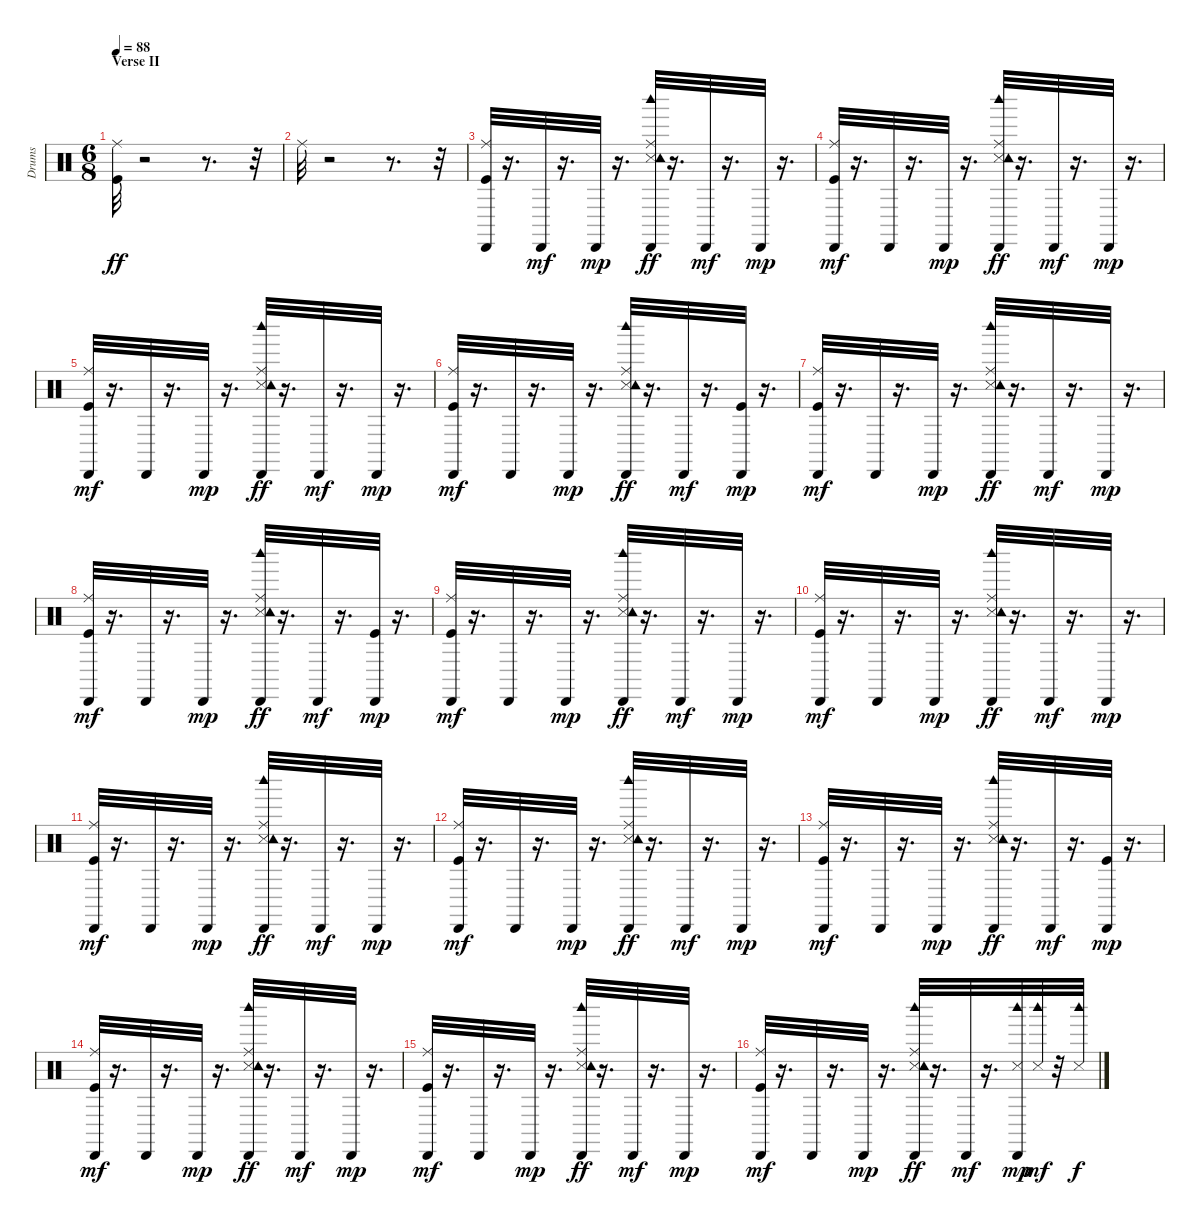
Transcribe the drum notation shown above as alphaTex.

\track ("Drums               " "Drums     ") {instrument percussion}
\staff {score}
\articulation defaults
\ts (6 8)
\section ("" "Verse II")
\tempo 88
\clef neutral
\ks c
("Kick (hit)" "Ride (middle)").32{dy ff} r.2 r.8{d} r.32 |
"Ride (middle)".32 r.2 r.8{d} r.32 |
("Kick (hit)" "Ride (middle)" "Cabasa (hit)").32 r.16{d} "Cabasa (hit)".32{dy mf} r.16{d} "Cabasa (hit)".32{dy mp} r.16{d} ("Snare (side stick) 3" "Ride (middle)" "Tambourine (hit)" "Cabasa (hit)" "Woodblock high (hit)").32{dy ff} r.16{d} "Cabasa (hit)".32{dy mf} r.16{d} "Cabasa (hit)".32{dy mp} r.16{d} |
("Kick (hit)" "Ride (middle)" "Cabasa (hit)").32{dy mf} r.16{d} "Cabasa (hit)".32 r.16{d} "Cabasa (hit)".32{dy mp} r.16{d} ("Snare (side stick) 3" "Ride (middle)" "Tambourine (hit)" "Cabasa (hit)" "Woodblock high (hit)").32{dy ff} r.16{d} "Cabasa (hit)".32{dy mf} r.16{d} "Cabasa (hit)".32{dy mp} r.16{d} |
("Kick (hit)" "Ride (middle)" "Cabasa (hit)").32{dy mf} r.16{d} "Cabasa (hit)".32 r.16{d} "Cabasa (hit)".32{dy mp} r.16{d} ("Snare (side stick) 3" "Ride (middle)" "Tambourine (hit)" "Cabasa (hit)" "Woodblock high (hit)").32{dy ff} r.16{d} "Cabasa (hit)".32{dy mf} r.16{d} "Cabasa (hit)".32{dy mp} r.16{d} |
("Kick (hit)" "Ride (middle)" "Cabasa (hit)").32{dy mf} r.16{d} "Cabasa (hit)".32 r.16{d} "Cabasa (hit)".32{dy mp} r.16{d} ("Snare (side stick) 3" "Ride (middle)" "Tambourine (hit)" "Cabasa (hit)" "Woodblock high (hit)").32{dy ff} r.16{d} "Cabasa (hit)".32{dy mf} r.16{d} ("Kick (hit)" "Cabasa (hit)").32{dy mp} r.16{d} |
("Kick (hit)" "Ride (middle)" "Cabasa (hit)").32{dy mf} r.16{d} "Cabasa (hit)".32 r.16{d} "Cabasa (hit)".32{dy mp} r.16{d} ("Snare (side stick) 3" "Ride (middle)" "Tambourine (hit)" "Cabasa (hit)" "Woodblock high (hit)").32{dy ff} r.16{d} "Cabasa (hit)".32{dy mf} r.16{d} "Cabasa (hit)".32{dy mp} r.16{d} |
("Kick (hit)" "Ride (middle)" "Cabasa (hit)").32{dy mf} r.16{d} "Cabasa (hit)".32 r.16{d} "Cabasa (hit)".32{dy mp} r.16{d} ("Snare (side stick) 3" "Ride (middle)" "Tambourine (hit)" "Cabasa (hit)" "Woodblock high (hit)").32{dy ff} r.16{d} "Cabasa (hit)".32{dy mf} r.16{d} ("Kick (hit)" "Cabasa (hit)").32{dy mp} r.16{d} |
("Kick (hit)" "Ride (middle)" "Cabasa (hit)").32{dy mf} r.16{d} "Cabasa (hit)".32 r.16{d} "Cabasa (hit)".32{dy mp} r.16{d} ("Snare (side stick) 3" "Ride (middle)" "Tambourine (hit)" "Cabasa (hit)" "Woodblock high (hit)").32{dy ff} r.16{d} "Cabasa (hit)".32{dy mf} r.16{d} "Cabasa (hit)".32{dy mp} r.16{d} |
("Kick (hit)" "Ride (middle)" "Cabasa (hit)").32{dy mf} r.16{d} "Cabasa (hit)".32 r.16{d} "Cabasa (hit)".32{dy mp} r.16{d} ("Snare (side stick) 3" "Ride (middle)" "Tambourine (hit)" "Cabasa (hit)" "Woodblock high (hit)").32{dy ff} r.16{d} "Cabasa (hit)".32{dy mf} r.16{d} "Cabasa (hit)".32{dy mp} r.16{d} |
("Kick (hit)" "Ride (middle)" "Cabasa (hit)").32{dy mf} r.16{d} "Cabasa (hit)".32 r.16{d} "Cabasa (hit)".32{dy mp} r.16{d} ("Snare (side stick) 3" "Ride (middle)" "Tambourine (hit)" "Cabasa (hit)" "Woodblock high (hit)").32{dy ff} r.16{d} "Cabasa (hit)".32{dy mf} r.16{d} "Cabasa (hit)".32{dy mp} r.16{d} |
("Kick (hit)" "Ride (middle)" "Cabasa (hit)").32{dy mf} r.16{d} "Cabasa (hit)".32 r.16{d} "Cabasa (hit)".32{dy mp} r.16{d} ("Snare (side stick) 3" "Ride (middle)" "Tambourine (hit)" "Cabasa (hit)" "Woodblock high (hit)").32{dy ff} r.16{d} "Cabasa (hit)".32{dy mf} r.16{d} "Cabasa (hit)".32{dy mp} r.16{d} |
("Kick (hit)" "Ride (middle)" "Cabasa (hit)").32{dy mf} r.16{d} "Cabasa (hit)".32 r.16{d} "Cabasa (hit)".32{dy mp} r.16{d} ("Snare (side stick) 3" "Ride (middle)" "Tambourine (hit)" "Cabasa (hit)" "Woodblock high (hit)").32{dy ff} r.16{d} "Cabasa (hit)".32{dy mf} r.16{d} ("Kick (hit)" "Cabasa (hit)").32{dy mp} r.16{d} |
("Kick (hit)" "Ride (middle)" "Cabasa (hit)").32{dy mf} r.16{d} "Cabasa (hit)".32 r.16{d} "Cabasa (hit)".32{dy mp} r.16{d} ("Snare (side stick) 3" "Ride (middle)" "Tambourine (hit)" "Cabasa (hit)" "Woodblock high (hit)").32{dy ff} r.16{d} "Cabasa (hit)".32{dy mf} r.16{d} "Cabasa (hit)".32{dy mp} r.16{d} |
("Kick (hit)" "Ride (middle)" "Cabasa (hit)").32{dy mf} r.16{d} "Cabasa (hit)".32 r.16{d} "Cabasa (hit)".32{dy mp} r.16{d} ("Snare (side stick) 3" "Ride (middle)" "Tambourine (hit)" "Cabasa (hit)" "Woodblock high (hit)").32{dy ff} r.16{d} "Cabasa (hit)".32{dy mf} r.16{d} "Cabasa (hit)".32{dy mp} r.16{d} |
("Kick (hit)" "Ride (middle)" "Cabasa (hit)").32{dy mf} r.16{d} "Cabasa (hit)".32 r.16{d} "Cabasa (hit)".32{dy mp} r.16{d} ("Snare (side stick) 3" "Ride (middle)" "Tambourine (hit)" "Cabasa (hit)" "Woodblock high (hit)").32{dy ff} r.16{d} "Cabasa (hit)".32{dy mf} r.16{d} ("Snare (side stick) 3" "Cabasa (hit)" "Woodblock high (hit)").32{dy mp} ("Snare (side stick) 3" "Woodblock high (hit)").32{dy mf} r.32 ("Snare (side stick) 3" "Woodblock high (hit)").32{dy f}
